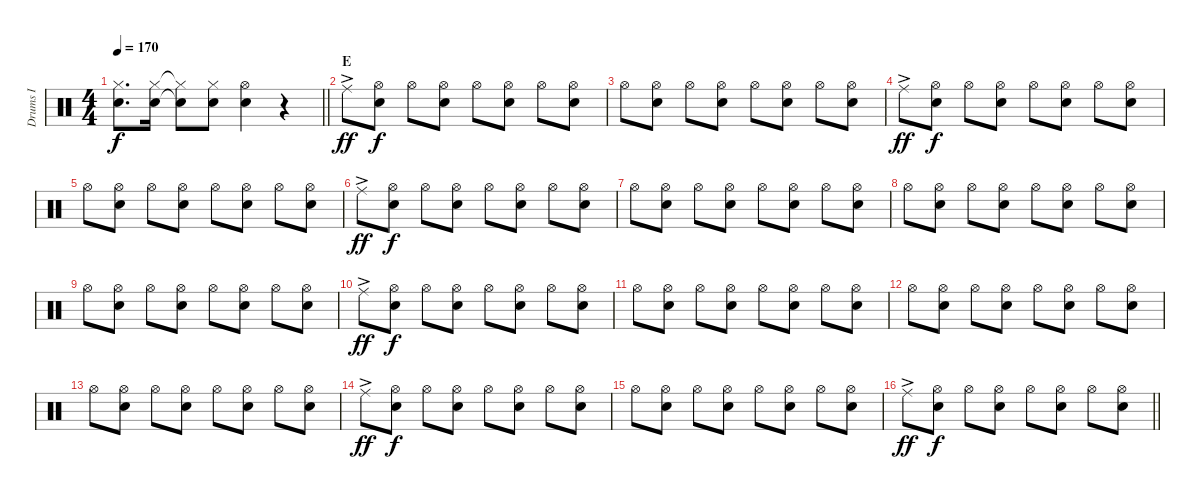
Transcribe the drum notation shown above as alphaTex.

\track ("Drums I" "Drums I") {instrument percussion}
\staff {score}
\articulation defaults
\ts (4 4)
\tempo 170
\clef neutral
\barLineRight lightlight
\ks c
("Hi-Hat (closed)" "Snare (hit) 2").8{d dy f} ("Hi-Hat (closed)" "Snare (hit) 2").16 ("Hi-Hat (closed)"{t} "Snare (hit) 2"{t}).8 ("Hi-Hat (closed)" "Snare (hit) 2").8 ("Hi-Hat (open)" "Snare (hit) 2").4 r.4 |
\section ("" "E")
"Ride (middle)"{ac}.8{dy ff} ("Hi-Hat (open)" "Snare (hit) 2").8{dy f} "Hi-Hat (open)".8 ("Hi-Hat (open)" "Snare (hit) 2").8 "Hi-Hat (open)".8 ("Hi-Hat (open)" "Snare (hit) 2").8 "Hi-Hat (open)".8 ("Hi-Hat (open)" "Snare (hit) 2").8 |
"Hi-Hat (open)".8 ("Hi-Hat (open)" "Snare (hit) 2").8 "Hi-Hat (open)".8 ("Hi-Hat (open)" "Snare (hit) 2").8 "Hi-Hat (open)".8 ("Hi-Hat (open)" "Snare (hit) 2").8 "Hi-Hat (open)".8 ("Hi-Hat (open)" "Snare (hit) 2").8 |
"Ride (middle)"{ac}.8{dy ff} ("Hi-Hat (open)" "Snare (hit) 2").8{dy f} "Hi-Hat (open)".8 ("Hi-Hat (open)" "Snare (hit) 2").8 "Hi-Hat (open)".8 ("Hi-Hat (open)" "Snare (hit) 2").8 "Hi-Hat (open)".8 ("Hi-Hat (open)" "Snare (hit) 2").8 |
"Hi-Hat (open)".8 ("Hi-Hat (open)" "Snare (hit) 2").8 "Hi-Hat (open)".8 ("Hi-Hat (open)" "Snare (hit) 2").8 "Hi-Hat (open)".8 ("Hi-Hat (open)" "Snare (hit) 2").8 "Hi-Hat (open)".8 ("Hi-Hat (open)" "Snare (hit) 2").8 |
"Ride (middle)"{ac}.8{dy ff} ("Hi-Hat (open)" "Snare (hit) 2").8{dy f} "Hi-Hat (open)".8 ("Hi-Hat (open)" "Snare (hit) 2").8 "Hi-Hat (open)".8 ("Hi-Hat (open)" "Snare (hit) 2").8 "Hi-Hat (open)".8 ("Hi-Hat (open)" "Snare (hit) 2").8 |
"Hi-Hat (open)".8 ("Hi-Hat (open)" "Snare (hit) 2").8 "Hi-Hat (open)".8 ("Hi-Hat (open)" "Snare (hit) 2").8 "Hi-Hat (open)".8 ("Hi-Hat (open)" "Snare (hit) 2").8 "Hi-Hat (open)".8 ("Hi-Hat (open)" "Snare (hit) 2").8 |
"Hi-Hat (open)".8 ("Hi-Hat (open)" "Snare (hit) 2").8 "Hi-Hat (open)".8 ("Hi-Hat (open)" "Snare (hit) 2").8 "Hi-Hat (open)".8 ("Hi-Hat (open)" "Snare (hit) 2").8 "Hi-Hat (open)".8 ("Hi-Hat (open)" "Snare (hit) 2").8 |
"Hi-Hat (open)".8 ("Hi-Hat (open)" "Snare (hit) 2").8 "Hi-Hat (open)".8 ("Hi-Hat (open)" "Snare (hit) 2").8 "Hi-Hat (open)".8 ("Hi-Hat (open)" "Snare (hit) 2").8 "Hi-Hat (open)".8 ("Hi-Hat (open)" "Snare (hit) 2").8 |
"Ride (middle)"{ac}.8{dy ff} ("Hi-Hat (open)" "Snare (hit) 2").8{dy f} "Hi-Hat (open)".8 ("Hi-Hat (open)" "Snare (hit) 2").8 "Hi-Hat (open)".8 ("Hi-Hat (open)" "Snare (hit) 2").8 "Hi-Hat (open)".8 ("Hi-Hat (open)" "Snare (hit) 2").8 |
"Hi-Hat (open)".8 ("Hi-Hat (open)" "Snare (hit) 2").8 "Hi-Hat (open)".8 ("Hi-Hat (open)" "Snare (hit) 2").8 "Hi-Hat (open)".8 ("Hi-Hat (open)" "Snare (hit) 2").8 "Hi-Hat (open)".8 ("Hi-Hat (open)" "Snare (hit) 2").8 |
"Hi-Hat (open)".8 ("Hi-Hat (open)" "Snare (hit) 2").8 "Hi-Hat (open)".8 ("Hi-Hat (open)" "Snare (hit) 2").8 "Hi-Hat (open)".8 ("Hi-Hat (open)" "Snare (hit) 2").8 "Hi-Hat (open)".8 ("Hi-Hat (open)" "Snare (hit) 2").8 |
"Hi-Hat (open)".8 ("Hi-Hat (open)" "Snare (hit) 2").8 "Hi-Hat (open)".8 ("Hi-Hat (open)" "Snare (hit) 2").8 "Hi-Hat (open)".8 ("Hi-Hat (open)" "Snare (hit) 2").8 "Hi-Hat (open)".8 ("Hi-Hat (open)" "Snare (hit) 2").8 |
"Ride (middle)"{ac}.8{dy ff} ("Hi-Hat (open)" "Snare (hit) 2").8{dy f} "Hi-Hat (open)".8 ("Hi-Hat (open)" "Snare (hit) 2").8 "Hi-Hat (open)".8 ("Hi-Hat (open)" "Snare (hit) 2").8 "Hi-Hat (open)".8 ("Hi-Hat (open)" "Snare (hit) 2").8 |
"Hi-Hat (open)".8 ("Hi-Hat (open)" "Snare (hit) 2").8 "Hi-Hat (open)".8 ("Hi-Hat (open)" "Snare (hit) 2").8 "Hi-Hat (open)".8 ("Hi-Hat (open)" "Snare (hit) 2").8 "Hi-Hat (open)".8 ("Hi-Hat (open)" "Snare (hit) 2").8 |
\barLineRight lightlight "Ride (middle)"{ac}.8{dy ff}
("Hi-Hat (open)" "Snare (hit) 2").8{dy f} "Hi-Hat (open)".8 ("Hi-Hat (open)" "Snare (hit) 2").8 "Hi-Hat (open)".8 ("Hi-Hat (open)" "Snare (hit) 2").8 "Hi-Hat (open)".8 ("Hi-Hat (open)" "Snare (hit) 2").8
